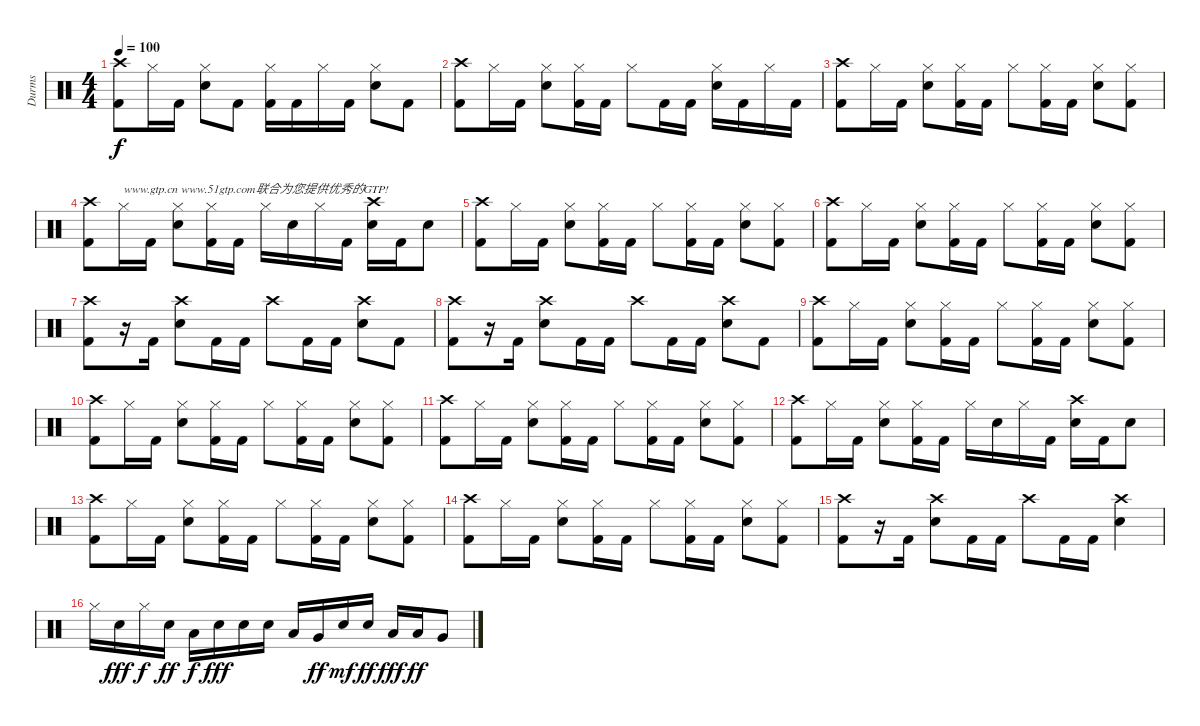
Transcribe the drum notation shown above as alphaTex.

\track ("Durms" "Durms") {instrument percussion}
\staff {score}
\articulation defaults
\ts (4 4)
\tempo 100
\clef neutral
\ks c
("Crash high (hit)" "Kick (hit) 2").8{dy f} "Hi-Hat (closed)".16 "Kick (hit) 2".16 ("Hi-Hat (closed)" "Electric Snare (hit)").8 "Kick (hit) 2".8 ("Hi-Hat (closed)" "Kick (hit) 2").16 "Kick (hit) 2".16 "Hi-Hat (closed)".16 "Kick (hit) 2".16 ("Hi-Hat (closed)" "Electric Snare (hit)").8 "Kick (hit) 2".8 |
("Crash high (hit)" "Kick (hit) 2").8 "Hi-Hat (closed)".16 "Kick (hit) 2".16 ("Hi-Hat (closed)" "Electric Snare (hit)").8 ("Hi-Hat (closed)" "Kick (hit) 2").16 "Kick (hit) 2".16 "Hi-Hat (closed)".8 "Kick (hit) 2".16 "Kick (hit) 2".16 ("Hi-Hat (closed)" "Electric Snare (hit)").16 "Kick (hit) 2".16 "Hi-Hat (closed)".16 "Kick (hit) 2".16 |
("Crash high (hit)" "Kick (hit) 2").8 "Hi-Hat (closed)".16 "Kick (hit) 2".16 ("Hi-Hat (closed)" "Electric Snare (hit)").8 ("Hi-Hat (closed)" "Kick (hit) 2").16 "Kick (hit) 2".16 "Hi-Hat (closed)".8 ("Hi-Hat (closed)" "Kick (hit) 2").16 "Kick (hit) 2".16 ("Hi-Hat (closed)" "Electric Snare (hit)").8 ("Hi-Hat (closed)" "Kick (hit) 2").8 |
("Crash high (hit)" "Kick (hit) 2").8 "Hi-Hat (closed)".16{txt "www.gtp.cn www.51gtp.com联合为您提供优秀的GTP!"} "Kick (hit) 2".16 ("Hi-Hat (closed)" "Electric Snare (hit)").8 ("Hi-Hat (closed)" "Kick (hit) 2").16 "Kick (hit) 2".16 "Hi-Hat (closed)".16 "Electric Snare (hit)".16 "Hi-Hat (closed)".16 "Kick (hit) 2".16 ("Crash high (hit)" "Electric Snare (hit)").16 "Kick (hit) 2".16 "Electric Snare (hit)".8 |
("Crash high (hit)" "Kick (hit) 2").8 "Hi-Hat (closed)".16 "Kick (hit) 2".16 ("Hi-Hat (closed)" "Electric Snare (hit)").8 ("Hi-Hat (closed)" "Kick (hit) 2").16 "Kick (hit) 2".16 "Hi-Hat (closed)".8 ("Hi-Hat (closed)" "Kick (hit) 2").16 "Kick (hit) 2".16 ("Hi-Hat (closed)" "Electric Snare (hit)").8 ("Hi-Hat (closed)" "Kick (hit) 2").8 |
("Crash high (hit)" "Kick (hit) 2").8 "Hi-Hat (closed)".16 "Kick (hit) 2".16 ("Hi-Hat (closed)" "Electric Snare (hit)").8 ("Hi-Hat (closed)" "Kick (hit) 2").16 "Kick (hit) 2".16 "Hi-Hat (closed)".8 ("Hi-Hat (closed)" "Kick (hit) 2").16 "Kick (hit) 2".16 ("Hi-Hat (closed)" "Electric Snare (hit)").8 ("Hi-Hat (closed)" "Kick (hit) 2").8 |
("Crash high (hit)" "Kick (hit) 2").8 r.16 "Kick (hit) 2".16 ("Crash high (hit)" "Electric Snare (hit)").8 "Kick (hit) 2".16 "Kick (hit) 2".16 "Crash high (hit)".8 "Kick (hit) 2".16 "Kick (hit) 2".16 ("Crash high (hit)" "Electric Snare (hit)").8 "Kick (hit) 2".8 |
("Crash high (hit)" "Kick (hit) 2").8 r.16 "Kick (hit) 2".16 ("Crash high (hit)" "Electric Snare (hit)").8 "Kick (hit) 2".16 "Kick (hit) 2".16 "Crash high (hit)".8 "Kick (hit) 2".16 "Kick (hit) 2".16 ("Crash high (hit)" "Electric Snare (hit)").8 "Kick (hit) 2".8 |
("Crash high (hit)" "Kick (hit) 2").8 "Hi-Hat (closed)".16 "Kick (hit) 2".16 ("Hi-Hat (closed)" "Electric Snare (hit)").8 ("Hi-Hat (closed)" "Kick (hit) 2").16 "Kick (hit) 2".16 "Hi-Hat (closed)".8 ("Hi-Hat (closed)" "Kick (hit) 2").16 "Kick (hit) 2".16 ("Hi-Hat (closed)" "Electric Snare (hit)").8 ("Hi-Hat (closed)" "Kick (hit) 2").8 |
("Crash high (hit)" "Kick (hit) 2").8 "Hi-Hat (closed)".16 "Kick (hit) 2".16 ("Hi-Hat (closed)" "Electric Snare (hit)").8 ("Hi-Hat (closed)" "Kick (hit) 2").16 "Kick (hit) 2".16 "Hi-Hat (closed)".8 ("Hi-Hat (closed)" "Kick (hit) 2").16 "Kick (hit) 2".16 ("Hi-Hat (closed)" "Electric Snare (hit)").8 ("Hi-Hat (closed)" "Kick (hit) 2").8 |
("Crash high (hit)" "Kick (hit) 2").8 "Hi-Hat (closed)".16 "Kick (hit) 2".16 ("Hi-Hat (closed)" "Electric Snare (hit)").8 ("Hi-Hat (closed)" "Kick (hit) 2").16 "Kick (hit) 2".16 "Hi-Hat (closed)".8 ("Hi-Hat (closed)" "Kick (hit) 2").16 "Kick (hit) 2".16 ("Hi-Hat (closed)" "Electric Snare (hit)").8 ("Hi-Hat (closed)" "Kick (hit) 2").8 |
("Crash high (hit)" "Kick (hit) 2").8 "Hi-Hat (closed)".16 "Kick (hit) 2".16 ("Hi-Hat (closed)" "Electric Snare (hit)").8 ("Hi-Hat (closed)" "Kick (hit) 2").16 "Kick (hit) 2".16 "Hi-Hat (closed)".16 "Electric Snare (hit)".16 "Hi-Hat (closed)".16 "Kick (hit) 2".16 ("Crash high (hit)" "Electric Snare (hit)").16 "Kick (hit) 2".16 "Electric Snare (hit)".8 |
("Crash high (hit)" "Kick (hit) 2").8 "Hi-Hat (closed)".16 "Kick (hit) 2".16 ("Hi-Hat (closed)" "Electric Snare (hit)").8 ("Hi-Hat (closed)" "Kick (hit) 2").16 "Kick (hit) 2".16 "Hi-Hat (closed)".8 ("Hi-Hat (closed)" "Kick (hit) 2").16 "Kick (hit) 2".16 ("Hi-Hat (closed)" "Electric Snare (hit)").8 ("Hi-Hat (closed)" "Kick (hit) 2").8 |
("Crash high (hit)" "Kick (hit) 2").8 "Hi-Hat (closed)".16 "Kick (hit) 2".16 ("Hi-Hat (closed)" "Electric Snare (hit)").8 ("Hi-Hat (closed)" "Kick (hit) 2").16 "Kick (hit) 2".16 "Hi-Hat (closed)".8 ("Hi-Hat (closed)" "Kick (hit) 2").16 "Kick (hit) 2".16 ("Hi-Hat (closed)" "Electric Snare (hit)").8 ("Hi-Hat (closed)" "Kick (hit) 2").8 |
("Crash high (hit)" "Kick (hit) 2").8 r.16 "Kick (hit) 2".16 ("Crash high (hit)" "Electric Snare (hit)").8 "Kick (hit) 2".16 "Kick (hit) 2".16 "Crash high (hit)".8 "Kick (hit) 2".16 "Kick (hit) 2".16 ("Crash high (hit)" "Electric Snare (hit)").4 |
"Hi-Hat (closed)".16 "Electric Snare (hit)".16{dy fff} "Hi-Hat (closed)".16{dy f} "Electric Snare (hit)".16{dy ff} "Low Tom (hit)".16{dy f} "Electric Snare (hit)".16{dy fff} "Electric Snare (hit)".16 "Electric Snare (hit)".16 "Low Tom (hit)".16 "Very Low Tom (hit)".16{dy ff} "Electric Snare (hit)".16{dy mf} "Electric Snare (hit)".16{dy ff} "Low Tom (hit)".16{dy fff} "Low Tom (hit)".16{dy ff} "Very Low Tom (hit)".8
